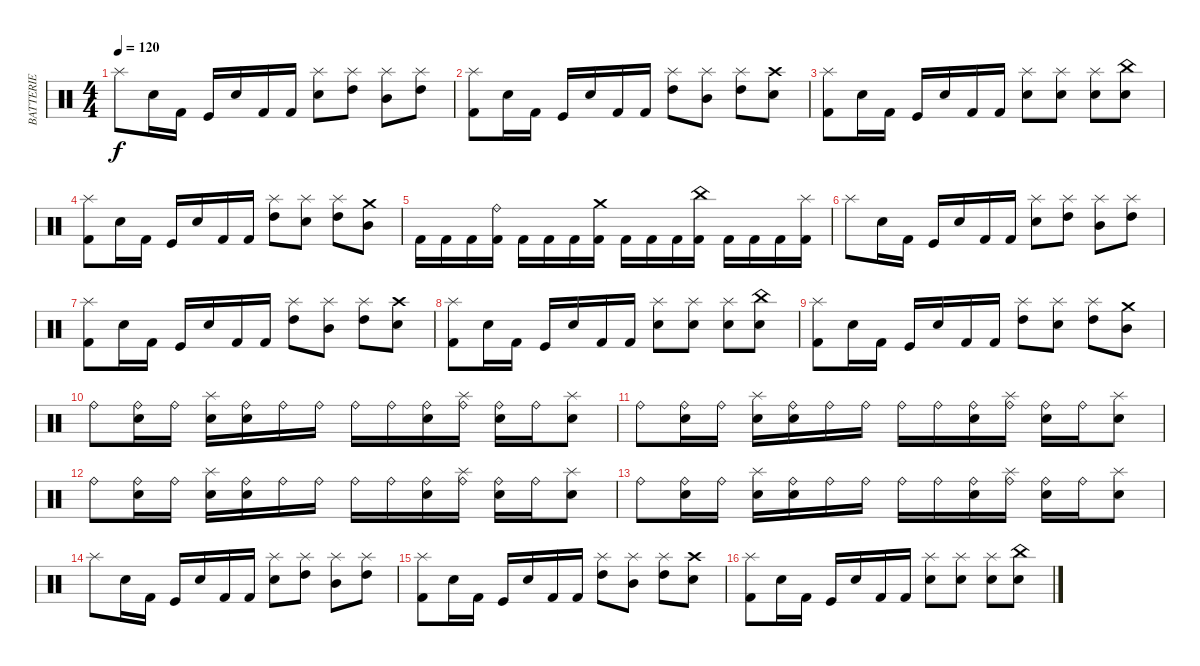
\track ("BATTERIE" "BATTERIE") {instrument percussion}
\staff {score}
\articulation defaults
\ts (4 4)
\tempo 120
\clef neutral
\ks c "Splash (hit)".8{dy f} "Snare (hit) 2".16 "Kick (hit) 2".16 "Kick (hit)".16 "Snare (hit) 2".16 "Kick (hit) 2".16 "Kick (hit) 2".16
("Splash (hit)" "Snare (hit) 2").8 ("Splash (hit)" "High Tom (hit)").8 ("Splash (hit)" "Mid Tom (hit)").8 ("Splash (hit)" "High Tom (hit)").8 |
("Splash (hit)" "Kick (hit) 2").8 "Snare (hit) 2".16 "Kick (hit) 2".16 "Kick (hit)".16 "Snare (hit) 2".16 "Kick (hit) 2".16 "Kick (hit) 2".16 ("Splash (hit)" "High Tom (hit)").8 ("Splash (hit)" "Mid Tom (hit)").8 ("Splash (hit)" "High Tom (hit)").8 ("Crash high (hit)" "Snare (hit) 2").8 |
("Splash (hit)" "Kick (hit) 2").8 "Snare (hit) 2".16 "Kick (hit) 2".16 "Kick (hit)".16 "Snare (hit) 2".16 "Kick (hit) 2".16 "Kick (hit) 2".16 ("Splash (hit)" "Snare (hit) 2").8 ("Splash (hit)" "Snare (hit) 2").8 ("Splash (hit)" "Snare (hit) 2").8 ("China (hit)" "Snare (hit) 2").8 |
("Splash (hit)" "Kick (hit) 2").8 "Snare (hit) 2".16 "Kick (hit) 2".16 "Kick (hit)".16 "Snare (hit) 2".16 "Kick (hit) 2".16 "Kick (hit) 2".16 ("Splash (hit)" "High Tom (hit)").8 ("Splash (hit)" "Snare (hit) 2").8 ("Splash (hit)" "High Tom (hit)").8 ("Crash medium (hit)" "Mid Tom (hit)").8 |
"Kick (hit) 2".16 "Kick (hit) 2".16 "Kick (hit) 2".16 ("Ride (bell)" "Kick (hit) 2").16 "Kick (hit) 2".16 "Kick (hit) 2".16 "Kick (hit) 2".16 ("Crash medium (hit)" "Kick (hit) 2").16 "Kick (hit) 2".16 "Kick (hit) 2".16 "Kick (hit) 2".16 ("China (hit)" "Kick (hit) 2").16 "Kick (hit) 2".16 "Kick (hit) 2".16 "Kick (hit) 2".16 ("Splash (hit)" "Kick (hit) 2").16 |
"Splash (hit)".8 "Snare (hit) 2".16 "Kick (hit) 2".16 "Kick (hit)".16 "Snare (hit) 2".16 "Kick (hit) 2".16 "Kick (hit) 2".16 ("Splash (hit)" "Snare (hit) 2").8 ("Splash (hit)" "High Tom (hit)").8 ("Splash (hit)" "Mid Tom (hit)").8 ("Splash (hit)" "High Tom (hit)").8 |
("Splash (hit)" "Kick (hit) 2").8 "Snare (hit) 2".16 "Kick (hit) 2".16 "Kick (hit)".16 "Snare (hit) 2".16 "Kick (hit) 2".16 "Kick (hit) 2".16 ("Splash (hit)" "High Tom (hit)").8 ("Splash (hit)" "Mid Tom (hit)").8 ("Splash (hit)" "High Tom (hit)").8 ("Crash high (hit)" "Snare (hit) 2").8 |
("Splash (hit)" "Kick (hit) 2").8 "Snare (hit) 2".16 "Kick (hit) 2".16 "Kick (hit)".16 "Snare (hit) 2".16 "Kick (hit) 2".16 "Kick (hit) 2".16 ("Splash (hit)" "Snare (hit) 2").8 ("Splash (hit)" "Snare (hit) 2").8 ("Splash (hit)" "Snare (hit) 2").8 ("China (hit)" "Snare (hit) 2").8 |
("Splash (hit)" "Kick (hit) 2").8 "Snare (hit) 2".16 "Kick (hit) 2".16 "Kick (hit)".16 "Snare (hit) 2".16 "Kick (hit) 2".16 "Kick (hit) 2".16 ("Splash (hit)" "High Tom (hit)").8 ("Splash (hit)" "Snare (hit) 2").8 ("Splash (hit)" "High Tom (hit)").8 ("Crash medium (hit)" "Mid Tom (hit)").8 |
"Ride (bell)".8 ("Snare (hit) 2" "Ride (bell)").16 "Ride (bell)".16 ("Snare (hit) 2" "Splash (hit)").16 ("Snare (hit) 2" "Ride (bell)").16 "Ride (bell)".16 "Ride (bell)".16 "Ride (bell)".16 "Ride (bell)".16 ("Snare (hit) 2" "Ride (bell)").16 ("Ride (bell)" "Splash (hit)").16 ("Snare (hit) 2" "Ride (bell)").16 "Ride (bell)".16 ("Splash (hit)" "Snare (hit) 2").8 |
"Ride (bell)".8 ("Snare (hit) 2" "Ride (bell)").16 "Ride (bell)".16 ("Snare (hit) 2" "Splash (hit)").16 ("Snare (hit) 2" "Ride (bell)").16 "Ride (bell)".16 "Ride (bell)".16 "Ride (bell)".16 "Ride (bell)".16 ("Snare (hit) 2" "Ride (bell)").16 ("Ride (bell)" "Splash (hit)").16 ("Snare (hit) 2" "Ride (bell)").16 "Ride (bell)".16 ("Splash (hit)" "Snare (hit) 2").8 |
"Ride (bell)".8 ("Snare (hit) 2" "Ride (bell)").16 "Ride (bell)".16 ("Snare (hit) 2" "Splash (hit)").16 ("Snare (hit) 2" "Ride (bell)").16 "Ride (bell)".16 "Ride (bell)".16 "Ride (bell)".16 "Ride (bell)".16 ("Snare (hit) 2" "Ride (bell)").16 ("Ride (bell)" "Splash (hit)").16 ("Snare (hit) 2" "Ride (bell)").16 "Ride (bell)".16 ("Splash (hit)" "Snare (hit) 2").8 |
"Ride (bell)".8 ("Snare (hit) 2" "Ride (bell)").16 "Ride (bell)".16 ("Snare (hit) 2" "Splash (hit)").16 ("Snare (hit) 2" "Ride (bell)").16 "Ride (bell)".16 "Ride (bell)".16 "Ride (bell)".16 "Ride (bell)".16 ("Snare (hit) 2" "Ride (bell)").16 ("Ride (bell)" "Splash (hit)").16 ("Snare (hit) 2" "Ride (bell)").16 "Ride (bell)".16 ("Splash (hit)" "Snare (hit) 2").8 |
"Splash (hit)".8 "Snare (hit) 2".16 "Kick (hit) 2".16 "Kick (hit)".16 "Snare (hit) 2".16 "Kick (hit) 2".16 "Kick (hit) 2".16 ("Splash (hit)" "Snare (hit) 2").8 ("Splash (hit)" "High Tom (hit)").8 ("Splash (hit)" "Mid Tom (hit)").8 ("Splash (hit)" "High Tom (hit)").8 |
("Splash (hit)" "Kick (hit) 2").8 "Snare (hit) 2".16 "Kick (hit) 2".16 "Kick (hit)".16 "Snare (hit) 2".16 "Kick (hit) 2".16 "Kick (hit) 2".16 ("Splash (hit)" "High Tom (hit)").8 ("Splash (hit)" "Mid Tom (hit)").8 ("Splash (hit)" "High Tom (hit)").8 ("Crash high (hit)" "Snare (hit) 2").8 |
("Splash (hit)" "Kick (hit) 2").8 "Snare (hit) 2".16 "Kick (hit) 2".16 "Kick (hit)".16 "Snare (hit) 2".16 "Kick (hit) 2".16 "Kick (hit) 2".16 ("Splash (hit)" "Snare (hit) 2").8 ("Splash (hit)" "Snare (hit) 2").8 ("Splash (hit)" "Snare (hit) 2").8 ("China (hit)" "Snare (hit) 2").8
